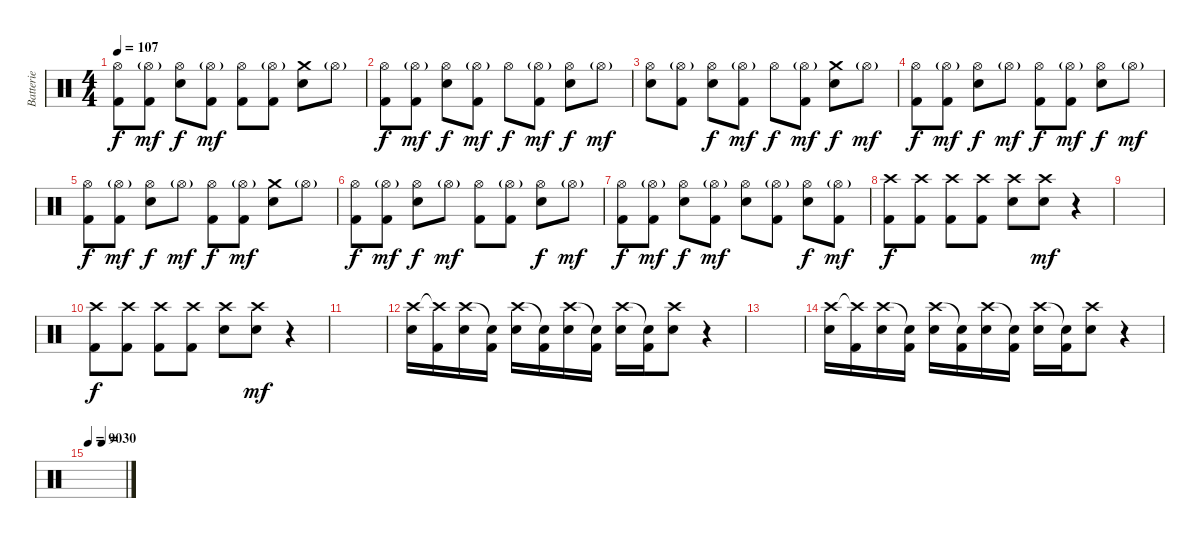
\track ("Batterie" "Batterie") {instrument percussion}
\staff {score}
\articulation defaults
\ts (4 4)
\tempo 107
\clef neutral
\ks c
("Hi-Hat (open)" "Kick (hit) 2").8{dy f} ("Hi-Hat (open)"{g} "Kick (hit) 2").8{dy mf} ("Hi-Hat (open)" "Electric Snare (hit)").8{dy f} ("Hi-Hat (open)"{g} "Kick (hit) 2").8{dy mf} ("Hi-Hat (open)" "Kick (hit) 2").8 ("Hi-Hat (open)"{g} "Kick (hit) 2").8 ("Crash medium (hit)" "Electric Snare (hit)").8 "Hi-Hat (open)"{g}.8 |
("Hi-Hat (open)" "Kick (hit) 2").8{dy f} ("Hi-Hat (open)"{g} "Kick (hit) 2").8{dy mf} ("Hi-Hat (open)" "Electric Snare (hit)").8{dy f} ("Hi-Hat (open)"{g} "Kick (hit) 2").8{dy mf} "Hi-Hat (open)".8{dy f} ("Hi-Hat (open)"{g} "Kick (hit) 2").8{dy mf} ("Hi-Hat (open)" "Electric Snare (hit)").8{dy f} "Hi-Hat (open)"{g}.8{dy mf} |
("Hi-Hat (open)" "Electric Snare (hit)").8 ("Hi-Hat (open)"{g} "Kick (hit) 2").8 ("Hi-Hat (open)" "Electric Snare (hit)").8{dy f} ("Hi-Hat (open)"{g} "Kick (hit) 2").8{dy mf} "Hi-Hat (open)".8{dy f} ("Hi-Hat (open)"{g} "Kick (hit) 2").8{dy mf} ("Crash medium (hit)" "Electric Snare (hit)").8{dy f} "Hi-Hat (open)"{g}.8{dy mf} |
("Hi-Hat (open)" "Kick (hit) 2").8{dy f} ("Hi-Hat (open)"{g} "Kick (hit) 2").8{dy mf} ("Hi-Hat (open)" "Electric Snare (hit)").8{dy f} "Hi-Hat (open)"{g}.8{dy mf} ("Hi-Hat (open)" "Kick (hit) 2").8{dy f} ("Hi-Hat (open)"{g} "Kick (hit) 2").8{dy mf} ("Hi-Hat (open)" "Electric Snare (hit)").8{dy f} "Hi-Hat (open)"{g}.8{dy mf} |
("Hi-Hat (open)" "Kick (hit) 2").8{dy f} ("Hi-Hat (open)"{g} "Kick (hit) 2").8{dy mf} ("Hi-Hat (open)" "Electric Snare (hit)").8{dy f} "Hi-Hat (open)"{g}.8{dy mf} ("Hi-Hat (open)" "Kick (hit) 2").8{dy f} ("Hi-Hat (open)"{g} "Kick (hit) 2").8{dy mf} ("Crash medium (hit)" "Electric Snare (hit)").8 "Hi-Hat (open)"{g}.8 |
("Hi-Hat (open)" "Kick (hit) 2").8{dy f} ("Hi-Hat (open)"{g} "Kick (hit) 2").8{dy mf} ("Hi-Hat (open)" "Electric Snare (hit)").8{dy f} "Hi-Hat (open)"{g}.8{dy mf} ("Hi-Hat (open)" "Kick (hit) 2").8 ("Hi-Hat (open)"{g} "Kick (hit) 2").8 ("Hi-Hat (open)" "Electric Snare (hit)").8{dy f} "Hi-Hat (open)"{g}.8{dy mf} |
("Hi-Hat (open)" "Kick (hit) 2").8{dy f} ("Hi-Hat (open)"{g} "Kick (hit) 2").8{dy mf} ("Hi-Hat (open)" "Electric Snare (hit)").8{dy f} ("Hi-Hat (open)"{g} "Kick (hit) 2").8{dy mf} ("Hi-Hat (open)" "Electric Snare (hit)").8 ("Hi-Hat (open)"{g} "Kick (hit) 2").8 ("Hi-Hat (open)" "Electric Snare (hit)").8{dy f} ("Hi-Hat (open)"{g} "Kick (hit) 2").8{dy mf} |
("Crash high (hit)" "Kick (hit) 2").8{dy f} ("Crash high (hit)" "Kick (hit) 2").8 ("Crash high (hit)" "Kick (hit) 2").8 ("Crash high (hit)" "Kick (hit) 2").8 ("Crash high (hit)" "Electric Snare (hit)").8 ("Crash high (hit)" "Electric Snare (hit)").8{dy mf} r.4 |
|
("Crash high (hit)" "Kick (hit) 2").8{dy f} ("Crash high (hit)" "Kick (hit) 2").8 ("Crash high (hit)" "Kick (hit) 2").8 ("Crash high (hit)" "Kick (hit) 2").8 ("Crash high (hit)" "Electric Snare (hit)").8 ("Crash high (hit)" "Electric Snare (hit)").8{dy mf} r.4 |
|
("Crash high (hit)" "Electric Snare (hit)").16 ("Crash high (hit)"{t} "Kick (hit) 2").16 ("Crash high (hit)" "Electric Snare (hit)").16 ("Snare (hit)"{t} "Kick (hit) 2").16 ("Crash high (hit)" "Electric Snare (hit)").16 ("Snare (hit)"{t} "Kick (hit) 2").16 ("Crash high (hit)" "Electric Snare (hit)").16 ("Snare (hit)"{t} "Kick (hit) 2").16 ("Crash high (hit)" "Electric Snare (hit)").16 ("Snare (hit)"{t} "Kick (hit) 2").16 ("Crash high (hit)" "Electric Snare (hit)").8 r.4 |
|
("Crash high (hit)" "Electric Snare (hit)").16 ("Crash high (hit)"{t} "Kick (hit) 2").16 ("Crash high (hit)" "Electric Snare (hit)").16 ("Snare (hit)"{t} "Kick (hit) 2").16 ("Crash high (hit)" "Electric Snare (hit)").16 ("Snare (hit)"{t} "Kick (hit) 2").16 ("Crash high (hit)" "Electric Snare (hit)").16 ("Snare (hit)"{t} "Kick (hit) 2").16 ("Crash high (hit)" "Electric Snare (hit)").16 ("Snare (hit)"{t} "Kick (hit) 2").16 ("Crash high (hit)" "Electric Snare (hit)").8 r.4 |
\tempo 90
\tempo (30 0.375)
